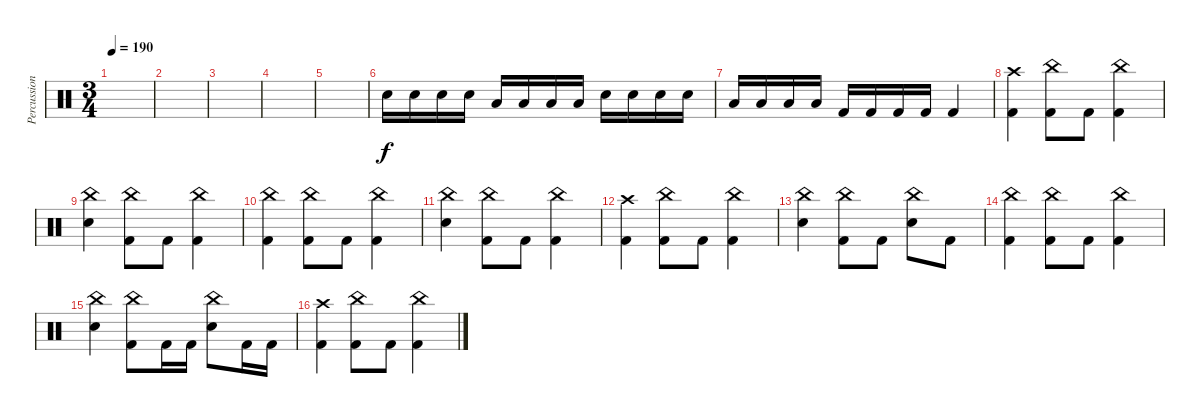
\track ("Percussion" "Percussion") {instrument percussion}
\staff {score}
\articulation defaults
\ts (3 4)
\tempo 190
\clef neutral
\ks c
|
|
|
|
|
"Electric Snare (hit)".16 "Electric Snare (hit)".16 "Electric Snare (hit)".16 "Electric Snare (hit)".16 "Low Tom (hit)".16 "Low Tom (hit)".16 "Low Tom (hit)".16 "Low Tom (hit)".16 "Electric Snare (hit)".16 "Electric Snare (hit)".16 "Electric Snare (hit)".16 "Electric Snare (hit)".16 |
"Low Floor Tom (hit)".16 "Low Floor Tom (hit)".16 "Low Floor Tom (hit)".16 "Low Floor Tom (hit)".16 "Kick (hit) 2".16 "Kick (hit) 2".16 "Kick (hit) 2".16 "Kick (hit) 2".16 "Kick (hit) 2".4 |
("Crash high (hit)" "Kick (hit) 2").4 ("China (hit)" "Kick (hit) 2").8 "Kick (hit) 2".8 ("China (hit)" "Kick (hit) 2").4 |
("China (hit)" "Electric Snare (hit)").4 ("China (hit)" "Kick (hit) 2").8 "Kick (hit) 2".8 ("China (hit)" "Kick (hit) 2").4 |
("China (hit)" "Kick (hit) 2").4 ("China (hit)" "Kick (hit) 2").8 "Kick (hit) 2".8 ("China (hit)" "Kick (hit) 2").4 |
("China (hit)" "Electric Snare (hit)").4 ("China (hit)" "Kick (hit) 2").8 "Kick (hit) 2".8 ("China (hit)" "Kick (hit) 2").4 |
("Crash high (hit)" "Kick (hit) 2").4 ("China (hit)" "Kick (hit) 2").8 "Kick (hit) 2".8 ("China (hit)" "Kick (hit) 2").4 |
("China (hit)" "Electric Snare (hit)").4 ("China (hit)" "Kick (hit) 2").8 "Kick (hit) 2".8 ("China (hit)" "Electric Snare (hit)").8 "Kick (hit) 2".8 |
("China (hit)" "Kick (hit) 2").4 ("China (hit)" "Kick (hit) 2").8 "Kick (hit) 2".8 ("China (hit)" "Kick (hit) 2").4 |
("China (hit)" "Electric Snare (hit)").4 ("China (hit)" "Kick (hit) 2").8 "Kick (hit) 2".16 "Kick (hit) 2".16 ("China (hit)" "Electric Snare (hit)").8 "Kick (hit) 2".16 "Kick (hit) 2".16 |
("Crash high (hit)" "Kick (hit) 2").4 ("China (hit)" "Kick (hit) 2").8 "Kick (hit) 2".8 ("China (hit)" "Kick (hit) 2").4
